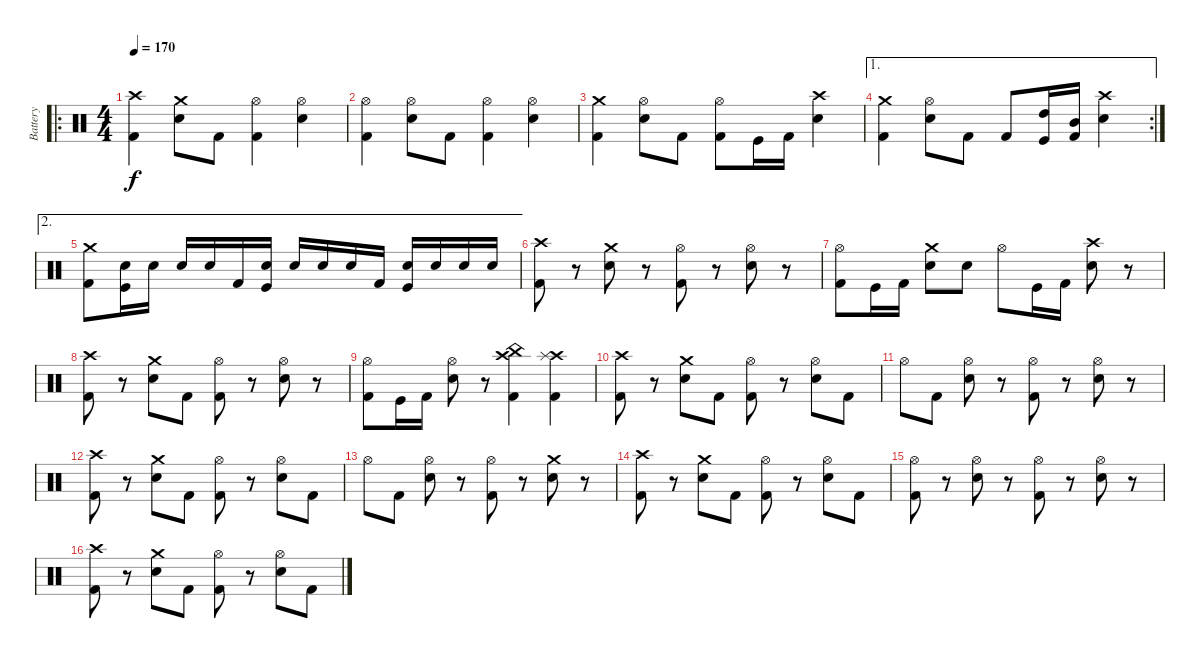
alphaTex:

\track ("Battery" "Battery") {instrument percussion}
\staff {score}
\articulation defaults
\ro
\ts (4 4)
\tempo 170
\clef neutral
\ks c
("Crash high (hit)" "Kick (hit) 2").4{dy f} ("Crash medium (hit)" "Snare (hit) 2").8 "Kick (hit) 2".8 ("Hi-Hat (open)" "Kick (hit) 2").4 ("Hi-Hat (open)" "Snare (hit) 2").4 |
("Hi-Hat (open)" "Kick (hit) 2").4 ("Hi-Hat (open)" "Snare (hit) 2").8 "Kick (hit) 2".8 ("Hi-Hat (open)" "Kick (hit) 2").4 ("Hi-Hat (open)" "Snare (hit) 2").4 |
("Crash medium (hit)" "Kick (hit) 2").4 ("Hi-Hat (open)" "Snare (hit) 2").8 "Kick (hit) 2".8 ("Hi-Hat (open)" "Kick (hit) 2").8 "Kick (hit)".16 "Kick (hit) 2".16 ("Crash high (hit)" "Snare (hit) 2").4 |
\ae 1
\rc 2
("Crash medium (hit)" "Kick (hit) 2").4 ("Hi-Hat (open)" "Snare (hit) 2").8 "Kick (hit) 2".8 "Kick (hit) 2".8 ("High Tom (hit)" "Kick (hit)").16 ("Mid Tom (hit)" "Kick (hit) 2").16 ("Crash high (hit)" "Snare (hit) 2").4 |
\ae 2
("Crash medium (hit)" "Kick (hit) 2").8 ("Snare (hit) 2" "Kick (hit)").16 "Snare (hit) 2".16 "Snare (hit) 2".16 "Snare (hit) 2".16 "Kick (hit) 2".16 ("Snare (hit) 2" "Kick (hit)").16 "Snare (hit) 2".16 "Snare (hit) 2".16 "Snare (hit) 2".16 "Kick (hit) 2".16 ("Snare (hit) 2" "Kick (hit)").16 "Snare (hit) 2".16 "Snare (hit) 2".16 "Snare (hit) 2".16 |
("Crash high (hit)" "Kick (hit) 2").8 r.8 ("Crash medium (hit)" "Snare (hit) 2").8 r.8 ("Hi-Hat (open)" "Kick (hit) 2").8 r.8 ("Hi-Hat (open)" "Snare (hit) 2").8 r.8 |
("Hi-Hat (open)" "Kick (hit) 2").8 "Kick (hit)".16 "Kick (hit) 2".16 ("Crash medium (hit)" "Snare (hit) 2").8 "Snare (hit) 2".8 "Hi-Hat (open)".8 "Kick (hit)".16 "Kick (hit) 2".16 ("Crash high (hit)" "Snare (hit) 2").8 r.8 |
("Crash high (hit)" "Kick (hit) 2").8 r.8 ("Crash medium (hit)" "Snare (hit) 2").8 "Kick (hit) 2".8 ("Hi-Hat (open)" "Kick (hit) 2").8 r.8 ("Hi-Hat (open)" "Snare (hit) 2").8 r.8 |
("Hi-Hat (open)" "Kick (hit) 2").8 "Kick (hit)".16 "Kick (hit) 2".16 ("Hi-Hat (open)" "Snare (hit) 2").8 r.8 ("Crash high (hit)" "China (hit)" "Kick (hit) 2").4 ("Crash high (hit)" "Splash (hit)" "Kick (hit) 2").4 |
("Crash high (hit)" "Kick (hit) 2").8 r.8 ("Crash medium (hit)" "Snare (hit) 2").8 "Kick (hit) 2".8 ("Hi-Hat (open)" "Kick (hit) 2").8 r.8 ("Hi-Hat (open)" "Snare (hit) 2").8 "Kick (hit) 2".8 |
"Hi-Hat (open)".8 "Kick (hit) 2".8 ("Hi-Hat (open)" "Snare (hit) 2").8 r.8 ("Hi-Hat (open)" "Kick (hit) 2").8 r.8 ("Hi-Hat (open)" "Snare (hit) 2").8 r.8 |
("Crash high (hit)" "Kick (hit) 2").8 r.8 ("Crash medium (hit)" "Snare (hit) 2").8 "Kick (hit) 2".8 ("Hi-Hat (open)" "Kick (hit) 2").8 r.8 ("Hi-Hat (open)" "Snare (hit) 2").8 "Kick (hit) 2".8 |
"Hi-Hat (open)".8 "Kick (hit) 2".8 ("Hi-Hat (open)" "Snare (hit) 2").8 r.8 ("Hi-Hat (open)" "Kick (hit) 2").8 r.8 ("Crash medium (hit)" "Snare (hit) 2").8 r.8 |
("Crash high (hit)" "Kick (hit) 2").8 r.8 ("Crash medium (hit)" "Snare (hit) 2").8 "Kick (hit) 2".8 ("Hi-Hat (open)" "Kick (hit) 2").8 r.8 ("Hi-Hat (open)" "Snare (hit) 2").8 "Kick (hit) 2".8 |
("Hi-Hat (open)" "Kick (hit) 2").8 r.8 ("Hi-Hat (open)" "Snare (hit) 2").8 r.8 ("Hi-Hat (open)" "Kick (hit) 2").8 r.8 ("Hi-Hat (open)" "Snare (hit) 2").8 r.8 |
("Crash high (hit)" "Kick (hit) 2").8 r.8 ("Crash medium (hit)" "Snare (hit) 2").8 "Kick (hit) 2".8 ("Hi-Hat (open)" "Kick (hit) 2").8 r.8 ("Hi-Hat (open)" "Snare (hit) 2").8 "Kick (hit) 2".8
